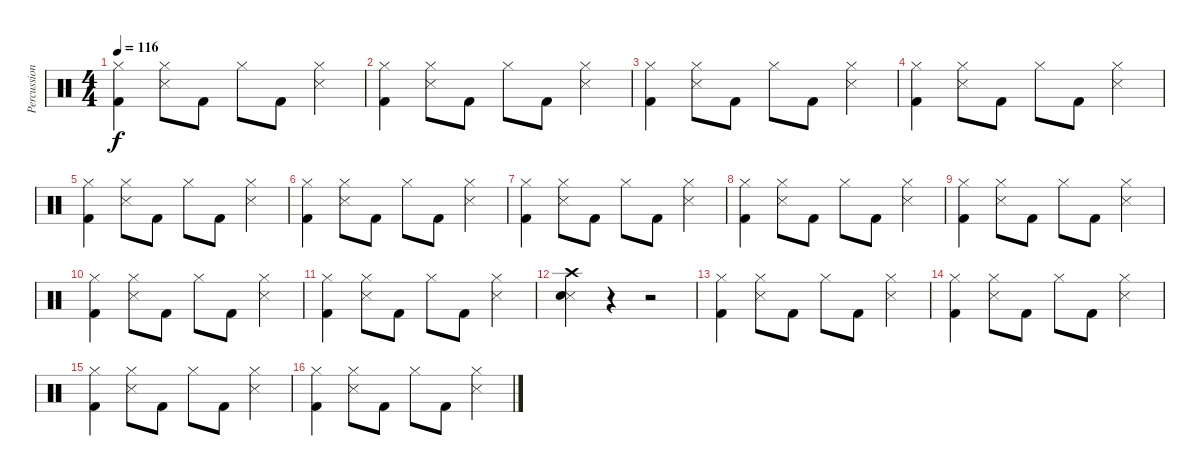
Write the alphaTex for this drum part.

\track ("Percussions" "Percussion") {instrument percussion}
\staff {score}
\articulation defaults
\ts (4 4)
\tempo 116
\clef neutral
\ks c
("Hi-Hat (closed)" "Kick (hit) 2").4{dy f} ("Hi-Hat (closed)" "Snare (side stick) 3").8 "Kick (hit) 2".8 "Hi-Hat (closed)".8 "Kick (hit) 2".8 ("Hi-Hat (closed)" "Snare (side stick) 3").4 |
("Hi-Hat (closed)" "Kick (hit) 2").4 ("Hi-Hat (closed)" "Snare (side stick) 3").8 "Kick (hit) 2".8 "Hi-Hat (closed)".8 "Kick (hit) 2".8 ("Hi-Hat (closed)" "Snare (side stick) 3").4 |
("Hi-Hat (closed)" "Kick (hit) 2").4 ("Hi-Hat (closed)" "Snare (side stick) 3").8 "Kick (hit) 2".8 "Hi-Hat (closed)".8 "Kick (hit) 2".8 ("Hi-Hat (closed)" "Snare (side stick) 3").4 |
("Hi-Hat (closed)" "Kick (hit) 2").4 ("Hi-Hat (closed)" "Snare (side stick) 3").8 "Kick (hit) 2".8 "Hi-Hat (closed)".8 "Kick (hit) 2".8 ("Hi-Hat (closed)" "Snare (side stick) 3").4 |
("Hi-Hat (closed)" "Kick (hit) 2").4 ("Hi-Hat (closed)" "Snare (side stick) 3").8 "Kick (hit) 2".8 "Hi-Hat (closed)".8 "Kick (hit) 2".8 ("Hi-Hat (closed)" "Snare (side stick) 3").4 |
("Hi-Hat (closed)" "Kick (hit) 2").4 ("Hi-Hat (closed)" "Snare (side stick) 3").8 "Kick (hit) 2".8 "Hi-Hat (closed)".8 "Kick (hit) 2".8 ("Hi-Hat (closed)" "Snare (side stick) 3").4 |
("Hi-Hat (closed)" "Kick (hit) 2").4 ("Hi-Hat (closed)" "Snare (side stick) 3").8 "Kick (hit) 2".8 "Hi-Hat (closed)".8 "Kick (hit) 2".8 ("Hi-Hat (closed)" "Snare (side stick) 3").4 |
("Hi-Hat (closed)" "Kick (hit) 2").4 ("Hi-Hat (closed)" "Snare (side stick) 3").8 "Kick (hit) 2".8 "Hi-Hat (closed)".8 "Kick (hit) 2".8 ("Hi-Hat (closed)" "Snare (side stick) 3").4 |
("Hi-Hat (closed)" "Kick (hit) 2").4 ("Hi-Hat (closed)" "Snare (side stick) 3").8 "Kick (hit) 2".8 "Hi-Hat (closed)".8 "Kick (hit) 2".8 ("Hi-Hat (closed)" "Snare (side stick) 3").4 |
("Hi-Hat (closed)" "Kick (hit) 2").4 ("Hi-Hat (closed)" "Snare (side stick) 3").8 "Kick (hit) 2".8 "Hi-Hat (closed)".8 "Kick (hit) 2".8 ("Hi-Hat (closed)" "Snare (side stick) 3").4 |
("Hi-Hat (closed)" "Kick (hit) 2").4 ("Hi-Hat (closed)" "Snare (side stick) 3").8 "Kick (hit) 2".8 "Hi-Hat (closed)".8 "Kick (hit) 2".8 ("Hi-Hat (closed)" "Snare (side stick) 3").4 |
("Crash high (hit)" "Snare (side stick) 3" "Snare (hit) 2").4 r.4 r.2 |
("Hi-Hat (closed)" "Kick (hit) 2").4 ("Hi-Hat (closed)" "Snare (side stick) 3").8 "Kick (hit) 2".8 "Hi-Hat (closed)".8 "Kick (hit) 2".8 ("Hi-Hat (closed)" "Snare (side stick) 3").4 |
("Hi-Hat (closed)" "Kick (hit) 2").4 ("Hi-Hat (closed)" "Snare (side stick) 3").8 "Kick (hit) 2".8 "Hi-Hat (closed)".8 "Kick (hit) 2".8 ("Hi-Hat (closed)" "Snare (side stick) 3").4 |
("Hi-Hat (closed)" "Kick (hit) 2").4 ("Hi-Hat (closed)" "Snare (side stick) 3").8 "Kick (hit) 2".8 "Hi-Hat (closed)".8 "Kick (hit) 2".8 ("Hi-Hat (closed)" "Snare (side stick) 3").4 |
("Hi-Hat (closed)" "Kick (hit) 2").4 ("Hi-Hat (closed)" "Snare (side stick) 3").8 "Kick (hit) 2".8 "Hi-Hat (closed)".8 "Kick (hit) 2".8 ("Hi-Hat (closed)" "Snare (side stick) 3").4
